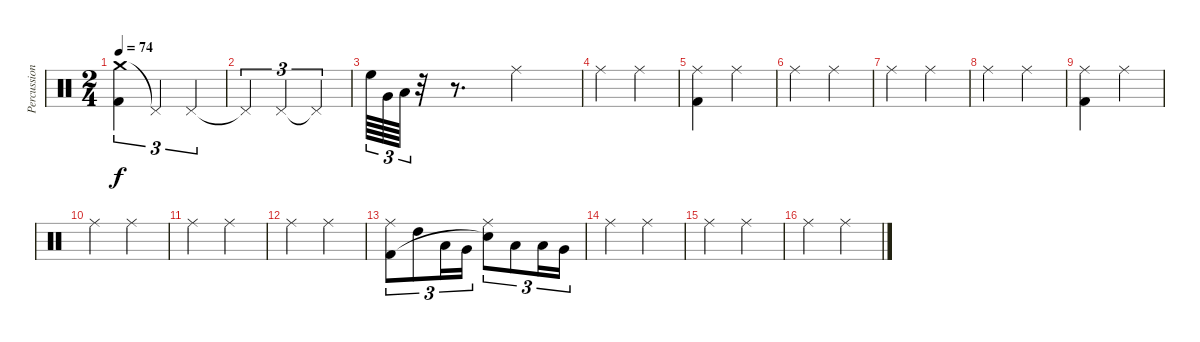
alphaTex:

\track ("Percussion" "Percussion") {instrument percussion}
\staff {score}
\articulation defaults
\ts (2 4)
\tempo 74
\clef neutral
\ks c
("Crash medium (hit)" "Kick (hit) 2").4{tu (3 2) dy f} "Pedal Hi-Hat (hit)"{t}.4{tu (3 2)} "Pedal Hi-Hat (hit)".4{tu (3 2)} |
"Pedal Hi-Hat (hit)"{t}.4{tu (3 2)} "Pedal Hi-Hat (hit)".4{tu (3 2)} "Pedal Hi-Hat (hit)"{t}.4{tu (3 2)} |
"High Floor Tom (hit)".64{tu (3 2)} "Very Low Tom (hit)".64{tu (3 2)} "Low Tom (hit)".64{tu (3 2)} r.32 r.8{d} "Ride (middle)".4 |
"Ride (middle)".4 "Ride (middle)".4 |
("Ride (middle)" "Kick (hit) 2").4 "Ride (middle)".4 |
"Ride (middle)".4 "Ride (middle)".4 |
"Ride (middle)".4 "Ride (middle)".4 |
"Ride (middle)".4 "Ride (middle)".4 |
("Ride (middle)" "Kick (hit) 2").4 "Ride (middle)".4 |
"Ride (middle)".4 "Ride (middle)".4 |
"Ride (middle)".4 "Ride (middle)".4 |
"Ride (middle)".4 "Ride (middle)".4 |
("Ride (middle)" "Kick (hit) 2").8{tu (3 2)} "High Tom (hit)".8{tu (3 2)} "Low Tom (hit)".16{tu (3 2)} "Very Low Tom (hit)".16{tu (3 2)} ("Ride (middle)" "Snare (hit)"{t}).8{tu (3 2)} "Low Tom (hit)".8{tu (3 2)} "Low Tom (hit)".16{tu (3 2)} "Very Low Tom (hit)".16{tu (3 2)} |
"Ride (middle)".4 "Ride (middle)".4 |
"Ride (middle)".4 "Ride (middle)".4 |
"Ride (middle)".4 "Ride (middle)".4
